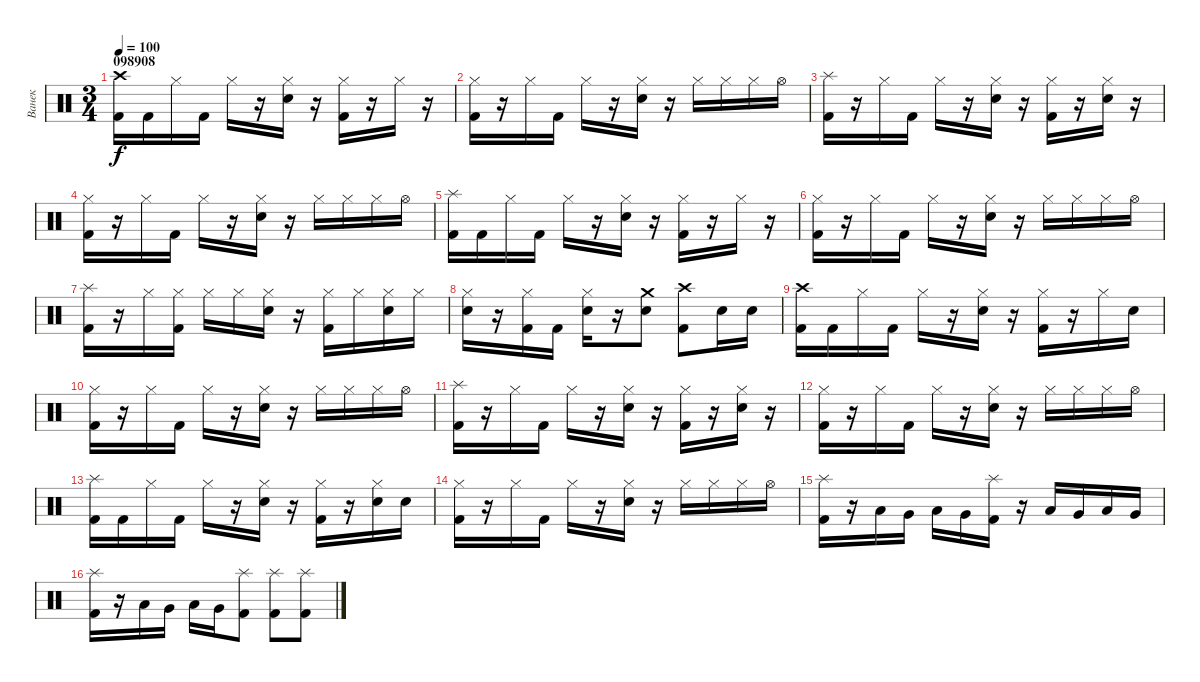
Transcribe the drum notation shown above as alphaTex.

\track ("Ванек" "Ванек") {instrument percussion}
\staff {score}
\articulation defaults
\ts (3 4)
\section ("" "098908")
\tempo 100
\clef neutral
\ks c
("Crash high (hit)" "Kick (hit) 2").16{dy f} "Kick (hit) 2".16 "Hi-Hat (closed)".16 "Kick (hit) 2".16 "Hi-Hat (closed)".16 r.16 ("Hi-Hat (closed)" "Snare (hit) 2").16 r.16 ("Hi-Hat (closed)" "Kick (hit) 2").16 r.16 "Hi-Hat (closed)".16 r.16 |
("Hi-Hat (closed)" "Kick (hit) 2").16 r.16 "Hi-Hat (closed)".16 "Kick (hit) 2".16 "Hi-Hat (closed)".16 r.16 ("Hi-Hat (closed)" "Snare (hit) 2").16 r.16 "Hi-Hat (closed)".16 "Hi-Hat (closed)".16 "Hi-Hat (closed)".16 "Hi-Hat (open)".16 |
("Splash (hit)" "Kick (hit) 2").16 r.16 "Hi-Hat (closed)".16 "Kick (hit) 2".16 "Hi-Hat (closed)".16 r.16 ("Hi-Hat (closed)" "Snare (hit) 2").16 r.16 ("Hi-Hat (closed)" "Kick (hit) 2").16 r.16 ("Hi-Hat (closed)" "Snare (hit) 2").16 r.16 |
("Hi-Hat (closed)" "Kick (hit) 2").16 r.16 "Hi-Hat (closed)".16 "Kick (hit) 2".16 "Hi-Hat (closed)".16 r.16 ("Hi-Hat (closed)" "Snare (hit) 2").16 r.16 "Hi-Hat (closed)".16 "Hi-Hat (closed)".16 "Hi-Hat (closed)".16 "Hi-Hat (open)".16 |
("Splash (hit)" "Kick (hit) 2").16 "Kick (hit) 2".16 "Hi-Hat (closed)".16 "Kick (hit) 2".16 "Hi-Hat (closed)".16 r.16 ("Hi-Hat (closed)" "Snare (hit) 2").16 r.16 ("Hi-Hat (closed)" "Kick (hit) 2").16 r.16 "Hi-Hat (closed)".16 r.16 |
("Hi-Hat (closed)" "Kick (hit) 2").16 r.16 "Hi-Hat (closed)".16 "Kick (hit) 2".16 "Hi-Hat (closed)".16 r.16 ("Hi-Hat (closed)" "Snare (hit) 2").16 r.16 "Hi-Hat (closed)".16 "Hi-Hat (closed)".16 "Hi-Hat (closed)".16 "Hi-Hat (open)".16 |
("Splash (hit)" "Kick (hit) 2").16 r.16 "Hi-Hat (closed)".16 ("Hi-Hat (closed)" "Kick (hit) 2").16 "Hi-Hat (closed)".16 "Hi-Hat (closed)".16 ("Hi-Hat (closed)" "Snare (hit) 2").16 r.16 ("Hi-Hat (closed)" "Kick (hit) 2").16 "Hi-Hat (closed)".16 ("Hi-Hat (closed)" "Snare (hit) 2").16 "Hi-Hat (closed)".16 |
("Hi-Hat (closed)" "Snare (hit) 2").16 r.16 ("Hi-Hat (closed)" "Kick (hit) 2").16 "Kick (hit) 2".16 ("Hi-Hat (closed)" "Snare (hit) 2").16 r.16 ("Crash medium (hit)" "Snare (hit) 2").8 ("Crash high (hit)" "Kick (hit) 2").8 "Snare (hit) 2".16 "Snare (hit) 2".16 |
("Crash high (hit)" "Kick (hit) 2").16 "Kick (hit) 2".16 "Hi-Hat (closed)".16 "Kick (hit) 2".16 "Hi-Hat (closed)".16 r.16 ("Hi-Hat (closed)" "Snare (hit) 2").16 r.16 ("Hi-Hat (closed)" "Kick (hit) 2").16 r.16 "Hi-Hat (closed)".16 "Snare (hit) 2".16 |
("Hi-Hat (closed)" "Kick (hit) 2").16 r.16 "Hi-Hat (closed)".16 "Kick (hit) 2".16 "Hi-Hat (closed)".16 r.16 ("Hi-Hat (closed)" "Snare (hit) 2").16 r.16 "Hi-Hat (closed)".16 "Hi-Hat (closed)".16 "Hi-Hat (closed)".16 "Hi-Hat (open)".16 |
("Splash (hit)" "Kick (hit) 2").16 r.16 "Hi-Hat (closed)".16 "Kick (hit) 2".16 "Hi-Hat (closed)".16 r.16 ("Hi-Hat (closed)" "Snare (hit) 2").16 r.16 ("Hi-Hat (closed)" "Kick (hit) 2").16 r.16 ("Hi-Hat (closed)" "Snare (hit) 2").16 r.16 |
("Hi-Hat (closed)" "Kick (hit) 2").16 r.16 "Hi-Hat (closed)".16 "Kick (hit) 2".16 "Hi-Hat (closed)".16 r.16 ("Hi-Hat (closed)" "Snare (hit) 2").16 r.16 "Hi-Hat (closed)".16 "Hi-Hat (closed)".16 "Hi-Hat (closed)".16 "Hi-Hat (open)".16 |
("Splash (hit)" "Kick (hit) 2").16 "Kick (hit) 2".16 "Hi-Hat (closed)".16 "Kick (hit) 2".16 "Hi-Hat (closed)".16 r.16 ("Hi-Hat (closed)" "Snare (hit) 2").16 r.16 ("Hi-Hat (closed)" "Kick (hit) 2").16 r.16 ("Hi-Hat (closed)" "Snare (hit) 2").16 "Snare (hit) 2".16 |
("Hi-Hat (closed)" "Kick (hit) 2").16 r.16 "Hi-Hat (closed)".16 "Kick (hit) 2".16 "Hi-Hat (closed)".16 r.16 ("Hi-Hat (closed)" "Snare (hit) 2").16 r.16 "Hi-Hat (closed)".16 "Hi-Hat (closed)".16 "Hi-Hat (closed)".16 "Hi-Hat (open)".16 |
("Splash (hit)" "Kick (hit) 2").16 r.16 "Low Tom (hit)".16 "Very Low Tom (hit)".16 "Low Floor Tom (hit)".16 "Very Low Tom (hit)".16 ("Splash (hit)" "Kick (hit) 2").16 r.16 "Low Tom (hit)".16 "Very Low Tom (hit)".16 "Low Floor Tom (hit)".16 "Very Low Tom (hit)".16 |
("Splash (hit)" "Kick (hit) 2").16 r.16 "Low Tom (hit)".16 "Very Low Tom (hit)".16 "Low Floor Tom (hit)".16 "Very Low Tom (hit)".16 ("Splash (hit)" "Kick (hit) 2").8 ("Splash (hit)" "Kick (hit) 2").8 ("Splash (hit)" "Kick (hit) 2").8
